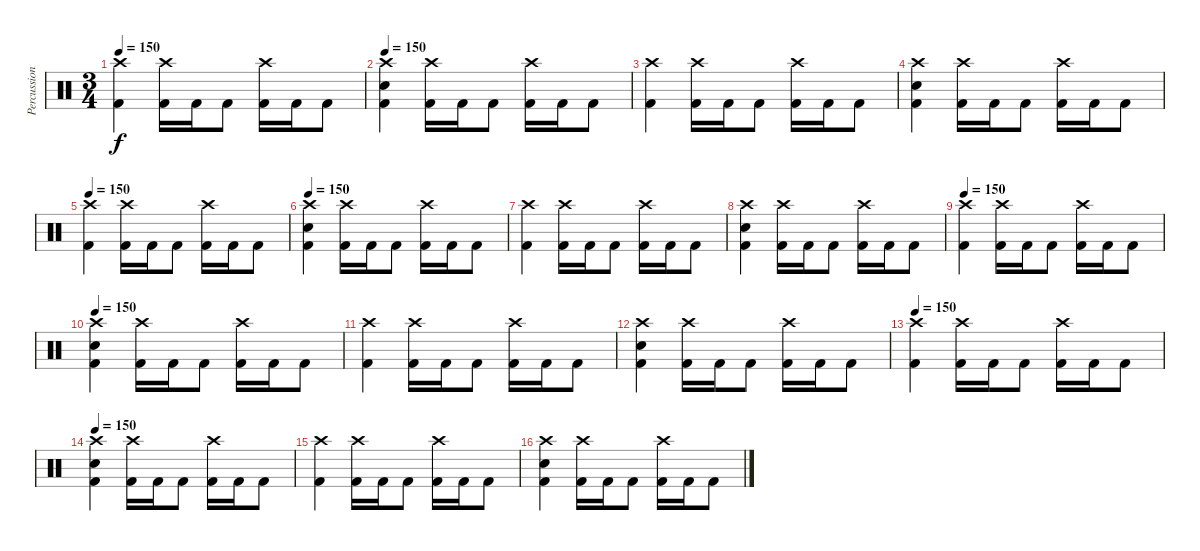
\track ("Percussion" "Percussion") {instrument percussion}
\staff {score}
\articulation defaults
\ts (3 4)
\tempo 150
\clef neutral
\ks c
("Crash high (hit)" "Kick (hit) 2").4{dy f} ("Crash high (hit)" "Kick (hit) 2").16 "Kick (hit) 2".16 "Kick (hit) 2".8 ("Crash high (hit)" "Kick (hit) 2").16 "Kick (hit) 2".16 "Kick (hit) 2".8 |
\tempo 150
("Crash high (hit)" "Electric Snare (hit)" "Kick (hit) 2").4 ("Crash high (hit)" "Kick (hit) 2").16 "Kick (hit) 2".16 "Kick (hit) 2".8 ("Crash high (hit)" "Kick (hit) 2").16 "Kick (hit) 2".16 "Kick (hit) 2".8 |
("Crash high (hit)" "Kick (hit) 2").4 ("Crash high (hit)" "Kick (hit) 2").16 "Kick (hit) 2".16 "Kick (hit) 2".8 ("Crash high (hit)" "Kick (hit) 2").16 "Kick (hit) 2".16 "Kick (hit) 2".8 |
("Crash high (hit)" "Electric Snare (hit)" "Kick (hit) 2").4 ("Crash high (hit)" "Kick (hit) 2").16 "Kick (hit) 2".16 "Kick (hit) 2".8 ("Crash high (hit)" "Kick (hit) 2").16 "Kick (hit) 2".16 "Kick (hit) 2".8 |
\tempo 150
("Crash high (hit)" "Kick (hit) 2").4 ("Crash high (hit)" "Kick (hit) 2").16 "Kick (hit) 2".16 "Kick (hit) 2".8 ("Crash high (hit)" "Kick (hit) 2").16 "Kick (hit) 2".16 "Kick (hit) 2".8 |
\tempo 150
("Crash high (hit)" "Electric Snare (hit)" "Kick (hit) 2").4 ("Crash high (hit)" "Kick (hit) 2").16 "Kick (hit) 2".16 "Kick (hit) 2".8 ("Crash high (hit)" "Kick (hit) 2").16 "Kick (hit) 2".16 "Kick (hit) 2".8 |
("Crash high (hit)" "Kick (hit) 2").4 ("Crash high (hit)" "Kick (hit) 2").16 "Kick (hit) 2".16 "Kick (hit) 2".8 ("Crash high (hit)" "Kick (hit) 2").16 "Kick (hit) 2".16 "Kick (hit) 2".8 |
("Crash high (hit)" "Electric Snare (hit)" "Kick (hit) 2").4 ("Crash high (hit)" "Kick (hit) 2").16 "Kick (hit) 2".16 "Kick (hit) 2".8 ("Crash high (hit)" "Kick (hit) 2").16 "Kick (hit) 2".16 "Kick (hit) 2".8 |
\tempo 150
("Crash high (hit)" "Kick (hit) 2").4 ("Crash high (hit)" "Kick (hit) 2").16 "Kick (hit) 2".16 "Kick (hit) 2".8 ("Crash high (hit)" "Kick (hit) 2").16 "Kick (hit) 2".16 "Kick (hit) 2".8 |
\tempo 150
("Crash high (hit)" "Electric Snare (hit)" "Kick (hit) 2").4 ("Crash high (hit)" "Kick (hit) 2").16 "Kick (hit) 2".16 "Kick (hit) 2".8 ("Crash high (hit)" "Kick (hit) 2").16 "Kick (hit) 2".16 "Kick (hit) 2".8 |
("Crash high (hit)" "Kick (hit) 2").4 ("Crash high (hit)" "Kick (hit) 2").16 "Kick (hit) 2".16 "Kick (hit) 2".8 ("Crash high (hit)" "Kick (hit) 2").16 "Kick (hit) 2".16 "Kick (hit) 2".8 |
("Crash high (hit)" "Electric Snare (hit)" "Kick (hit) 2").4 ("Crash high (hit)" "Kick (hit) 2").16 "Kick (hit) 2".16 "Kick (hit) 2".8 ("Crash high (hit)" "Kick (hit) 2").16 "Kick (hit) 2".16 "Kick (hit) 2".8 |
\tempo 150
("Crash high (hit)" "Kick (hit) 2").4 ("Crash high (hit)" "Kick (hit) 2").16 "Kick (hit) 2".16 "Kick (hit) 2".8 ("Crash high (hit)" "Kick (hit) 2").16 "Kick (hit) 2".16 "Kick (hit) 2".8 |
\tempo 150
("Crash high (hit)" "Electric Snare (hit)" "Kick (hit) 2").4 ("Crash high (hit)" "Kick (hit) 2").16 "Kick (hit) 2".16 "Kick (hit) 2".8 ("Crash high (hit)" "Kick (hit) 2").16 "Kick (hit) 2".16 "Kick (hit) 2".8 |
("Crash high (hit)" "Kick (hit) 2").4 ("Crash high (hit)" "Kick (hit) 2").16 "Kick (hit) 2".16 "Kick (hit) 2".8 ("Crash high (hit)" "Kick (hit) 2").16 "Kick (hit) 2".16 "Kick (hit) 2".8 |
("Crash high (hit)" "Electric Snare (hit)" "Kick (hit) 2").4 ("Crash high (hit)" "Kick (hit) 2").16 "Kick (hit) 2".16 "Kick (hit) 2".8 ("Crash high (hit)" "Kick (hit) 2").16 "Kick (hit) 2".16 "Kick (hit) 2".8
